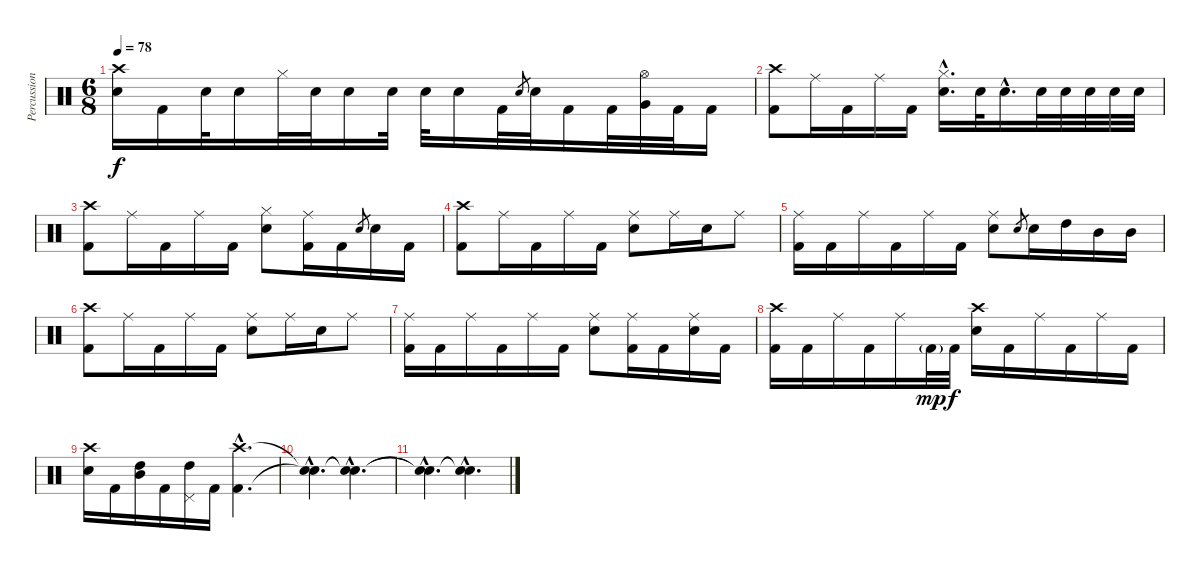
\track ("Percussion" "Percussion") {instrument percussion}
\staff {score}
\articulation defaults
\ts (6 8)
\tempo 78
\clef neutral
\ks c
("Crash high (hit)" "Electric Snare (hit)").16{dy f} "Kick (hit) 2".16 "Electric Snare (hit)".32 "Electric Snare (hit)".16 "Hi-Hat (closed)".32 "Electric Snare (hit)".32 "Electric Snare (hit)".16 "Electric Snare (hit)".32 "Electric Snare (hit)".32 "Electric Snare (hit)".16 "Kick (hit) 2".32 "Electric Snare (hit)".8{gr} "Electric Snare (hit)".32 "Kick (hit) 2".16 "Kick (hit) 2".32 ("Hi-Hat (open)" "Very Low Tom (hit)").32 "Kick (hit) 2".32 "Kick (hit) 2".16 |
("Crash high (hit)" "Kick (hit) 2").8 "Ride (middle)".16 "Kick (hit) 2".16 "Ride (middle)".16 "Kick (hit) 2".16 ("Hi-Hat (closed)"{hac} "Electric Snare (hit)"{hac}).16{d} "Electric Snare (hit)".32 "Electric Snare (hit)"{hac}.16{d} "Electric Snare (hit)".32 "Electric Snare (hit)".32 "Electric Snare (hit)".32 "Electric Snare (hit)".32 "Electric Snare (hit)".32 |
("Crash high (hit)" "Kick (hit) 2").8 "Ride (middle)".16 "Kick (hit) 2".16 "Ride (middle)".16 "Kick (hit) 2".16 ("Hi-Hat (closed)" "Electric Snare (hit)").8 ("Ride (middle)" "Kick (hit) 2").16 "Kick (hit) 2".16 "Electric Snare (hit)".8{gr} "Electric Snare (hit)".16 "Kick (hit) 2".16 |
("Crash high (hit)" "Kick (hit) 2").8 "Ride (middle)".16 "Kick (hit) 2".16 "Ride (middle)".16 "Kick (hit) 2".16 ("Ride (middle)" "Electric Snare (hit)").8 "Ride (middle)".16 "Electric Snare (hit)".16 "Ride (middle)".8 |
("Ride (middle)" "Kick (hit) 2").16 "Kick (hit) 2".16 "Ride (middle)".16 "Kick (hit) 2".16 "Ride (middle)".16 "Kick (hit) 2".16 ("Ride (middle)" "Electric Snare (hit)").8 "Electric Snare (hit)".8{gr} "Electric Snare (hit)".16 "High Tom (hit)".16 "Mid Tom (hit)".16 "Mid Tom (hit)".16 |
("Crash high (hit)" "Kick (hit) 2").8 "Ride (middle)".16 "Kick (hit) 2".16 "Ride (middle)".16 "Kick (hit) 2".16 ("Ride (middle)" "Electric Snare (hit)").8 "Ride (middle)".16 "Electric Snare (hit)".16 "Ride (middle)".8 |
("Ride (middle)" "Kick (hit) 2").16 "Kick (hit) 2".16 "Ride (middle)".16 "Kick (hit) 2".16 "Ride (middle)".16 "Kick (hit) 2".16 ("Ride (middle)" "Electric Snare (hit)").8 ("Ride (middle)" "Kick (hit) 2").16 "Kick (hit) 2".16 ("Ride (middle)" "Electric Snare (hit)").16 "Kick (hit) 2".16 |
("Crash high (hit)" "Kick (hit) 2").16 "Kick (hit) 2".16 "Ride (middle)".16 "Kick (hit) 2".16 "Ride (middle)".16 "Kick (hit) 2"{g}.32{dy mp} "Kick (hit) 2".32{dy f} ("Crash high (hit)" "Electric Snare (hit)").16 "Kick (hit) 2".16 "Ride (middle)".16 "Kick (hit) 2".16 "Ride (middle)".16 "Kick (hit) 2".16 |
("Crash high (hit)" "Electric Snare (hit)").16 "Kick (hit) 2".16 ("Mid Tom (hit)" "High Tom (hit)").16 "Kick (hit) 2".16 ("Pedal Hi-Hat (hit)" "High Tom (hit)").16 "Kick (hit) 2".16 ("Crash high (hit)"{hac} "Kick (hit) 2"{hac}).4{d} |
("Snare (hit)"{hac t} "Snare (hit)"{hac t}).4{d} ("Snare (hit)"{hac t} "Snare (hit)"{hac t}).4{d} |
("Snare (hit)"{hac t} "Snare (hit)"{hac t}).4{d} ("Snare (hit)"{hac t} "Snare (hit)"{hac t}).4{d}
